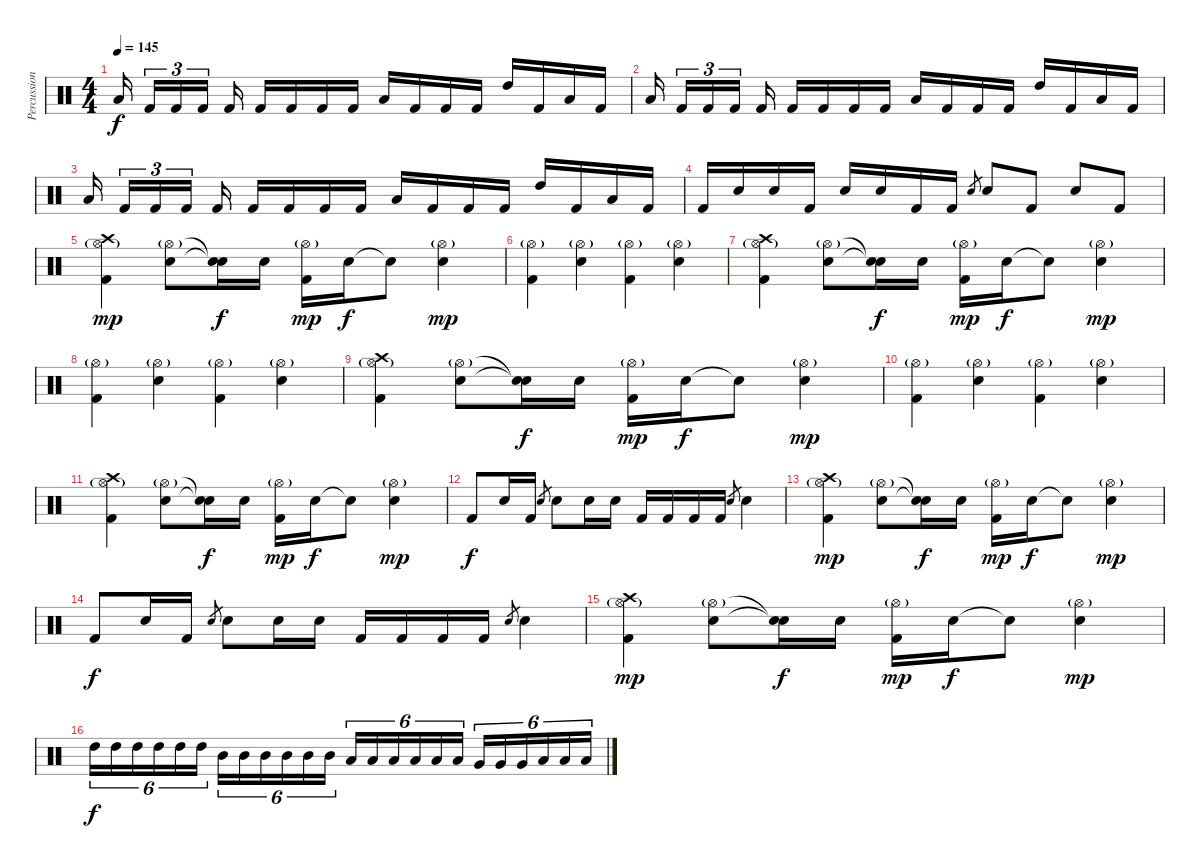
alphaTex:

\track ("Percussion" "Percussion") {instrument percussion}
\staff {score}
\articulation defaults
\ts (4 4)
\tempo 145
\clef neutral
\ks c "Low Tom (hit)".16{dy f} "Kick (hit) 2".16{tu (3 2)} "Kick (hit) 2".16{tu (3 2)} "Kick (hit) 2".16{tu (3 2)} "Kick (hit) 2".16 "Kick (hit) 2".16 "Kick (hit) 2".16 "Kick (hit) 2".16 "Kick (hit) 2".16 "Low Tom (hit)".16 "Kick (hit) 2".16 "Kick (hit) 2".16 "Kick (hit) 2".16 "High Tom (hit)".16 "Kick (hit) 2".16 "Low Tom (hit)".16 "Kick (hit) 2".16
|
"Low Tom (hit)".16 "Kick (hit) 2".16{tu (3 2)} "Kick (hit) 2".16{tu (3 2)} "Kick (hit) 2".16{tu (3 2)} "Kick (hit) 2".16 "Kick (hit) 2".16 "Kick (hit) 2".16 "Kick (hit) 2".16 "Kick (hit) 2".16 "Low Tom (hit)".16 "Kick (hit) 2".16 "Kick (hit) 2".16 "Kick (hit) 2".16 "High Tom (hit)".16 "Kick (hit) 2".16 "Low Tom (hit)".16 "Kick (hit) 2".16 |
"Low Tom (hit)".16 "Kick (hit) 2".16{tu (3 2)} "Kick (hit) 2".16{tu (3 2)} "Kick (hit) 2".16{tu (3 2)} "Kick (hit) 2".16 "Kick (hit) 2".16 "Kick (hit) 2".16 "Kick (hit) 2".16 "Kick (hit) 2".16 "Low Tom (hit)".16 "Kick (hit) 2".16 "Kick (hit) 2".16 "Kick (hit) 2".16 "High Tom (hit)".16 "Kick (hit) 2".16 "Low Tom (hit)".16 "Kick (hit) 2".16 |
"Kick (hit) 2".16 "Electric Snare (hit)".16 "Electric Snare (hit)".16 "Kick (hit) 2".16 "Electric Snare (hit)".16 "Electric Snare (hit)".16 "Kick (hit) 2".16 "Kick (hit) 2".16 "Electric Snare (hit)".8{gr} "Electric Snare (hit)".8 "Kick (hit) 2".8 "Electric Snare (hit)".8 "Kick (hit) 2".8 |
("Hi-Hat (open)"{g} "Crash high (hit)" "Kick (hit) 2").4{dy mp} ("Hi-Hat (open)"{g} "Electric Snare (hit)").8 ("Snare (hit)"{t} "Snare (hit)"{t}).16{dy f} "Electric Snare (hit)".16 ("Hi-Hat (open)"{g} "Kick (hit) 2").16{dy mp} "Electric Snare (hit)".16{dy f} "Snare (hit)"{t}.8 ("Hi-Hat (open)"{g} "Electric Snare (hit)").4{dy mp} |
("Hi-Hat (open)"{g} "Kick (hit) 2").4 ("Hi-Hat (open)"{g} "Electric Snare (hit)").4 ("Hi-Hat (open)"{g} "Kick (hit) 2").4 ("Hi-Hat (open)"{g} "Electric Snare (hit)").4 |
("Hi-Hat (open)"{g} "Crash high (hit)" "Kick (hit) 2").4 ("Hi-Hat (open)"{g} "Electric Snare (hit)").8 ("Snare (hit)"{t} "Snare (hit)"{t}).16{dy f} "Electric Snare (hit)".16 ("Hi-Hat (open)"{g} "Kick (hit) 2").16{dy mp} "Electric Snare (hit)".16{dy f} "Snare (hit)"{t}.8 ("Hi-Hat (open)"{g} "Electric Snare (hit)").4{dy mp} |
("Hi-Hat (open)"{g} "Kick (hit) 2").4 ("Hi-Hat (open)"{g} "Electric Snare (hit)").4 ("Hi-Hat (open)"{g} "Kick (hit) 2").4 ("Hi-Hat (open)"{g} "Electric Snare (hit)").4 |
("Hi-Hat (open)"{g} "Crash high (hit)" "Kick (hit) 2").4 ("Hi-Hat (open)"{g} "Electric Snare (hit)").8 ("Snare (hit)"{t} "Snare (hit)"{t}).16{dy f} "Electric Snare (hit)".16 ("Hi-Hat (open)"{g} "Kick (hit) 2").16{dy mp} "Electric Snare (hit)".16{dy f} "Snare (hit)"{t}.8 ("Hi-Hat (open)"{g} "Electric Snare (hit)").4{dy mp} |
("Hi-Hat (open)"{g} "Kick (hit) 2").4 ("Hi-Hat (open)"{g} "Electric Snare (hit)").4 ("Hi-Hat (open)"{g} "Kick (hit) 2").4 ("Hi-Hat (open)"{g} "Electric Snare (hit)").4 |
("Hi-Hat (open)"{g} "Crash high (hit)" "Kick (hit) 2").4 ("Hi-Hat (open)"{g} "Electric Snare (hit)").8 ("Snare (hit)"{t} "Snare (hit)"{t}).16{dy f} "Electric Snare (hit)".16 ("Hi-Hat (open)"{g} "Kick (hit) 2").16{dy mp} "Electric Snare (hit)".16{dy f} "Snare (hit)"{t}.8 ("Hi-Hat (open)"{g} "Electric Snare (hit)").4{dy mp} |
"Kick (hit) 2".8{dy f} "Electric Snare (hit)".16 "Kick (hit) 2".16 "Electric Snare (hit)".8{gr} "Electric Snare (hit)".8 "Electric Snare (hit)".16 "Electric Snare (hit)".16 "Kick (hit) 2".16 "Kick (hit) 2".16 "Kick (hit) 2".16 "Kick (hit) 2".16 "Electric Snare (hit)".8{gr} "Electric Snare (hit)".4 |
("Hi-Hat (open)"{g} "Crash high (hit)" "Kick (hit) 2").4{dy mp} ("Hi-Hat (open)"{g} "Electric Snare (hit)").8 ("Snare (hit)"{t} "Snare (hit)"{t}).16{dy f} "Electric Snare (hit)".16 ("Hi-Hat (open)"{g} "Kick (hit) 2").16{dy mp} "Electric Snare (hit)".16{dy f} "Snare (hit)"{t}.8 ("Hi-Hat (open)"{g} "Electric Snare (hit)").4{dy mp} |
"Kick (hit) 2".8{dy f} "Electric Snare (hit)".16 "Kick (hit) 2".16 "Electric Snare (hit)".8{gr} "Electric Snare (hit)".8 "Electric Snare (hit)".16 "Electric Snare (hit)".16 "Kick (hit) 2".16 "Kick (hit) 2".16 "Kick (hit) 2".16 "Kick (hit) 2".16 "Electric Snare (hit)".8{gr} "Electric Snare (hit)".4 |
("Hi-Hat (open)"{g} "Crash high (hit)" "Kick (hit) 2").4{dy mp} ("Hi-Hat (open)"{g} "Electric Snare (hit)").8 ("Snare (hit)"{t} "Snare (hit)"{t}).16{dy f} "Electric Snare (hit)".16 ("Hi-Hat (open)"{g} "Kick (hit) 2").16{dy mp} "Electric Snare (hit)".16{dy f} "Snare (hit)"{t}.8 ("Hi-Hat (open)"{g} "Electric Snare (hit)").4{dy mp} |
"High Tom (hit)".16{tu (6 4) dy f} "High Tom (hit)".16{tu (6 4)} "High Tom (hit)".16{tu (6 4)} "High Tom (hit)".16{tu (6 4)} "High Tom (hit)".16{tu (6 4)} "High Tom (hit)".16{tu (6 4)} "Mid Tom (hit)".16{tu (6 4)} "Mid Tom (hit)".16{tu (6 4)} "Mid Tom (hit)".16{tu (6 4)} "Mid Tom (hit)".16{tu (6 4)} "Mid Tom (hit)".16{tu (6 4)} "Mid Tom (hit)".16{tu (6 4)} "Low Tom (hit)".16{tu (6 4)} "Low Tom (hit)".16{tu (6 4)} "Low Tom (hit)".16{tu (6 4)} "Low Tom (hit)".16{tu (6 4)} "Low Tom (hit)".16{tu (6 4)} "Low Tom (hit)".16{tu (6 4)} "Very Low Tom (hit)".16{tu (6 4)} "Very Low Tom (hit)".16{tu (6 4)} "Very Low Tom (hit)".16{tu (6 4)} "Low Floor Tom (hit)".16{tu (6 4)} "Low Floor Tom (hit)".16{tu (6 4)} "Low Floor Tom (hit)".16{tu (6 4)}
